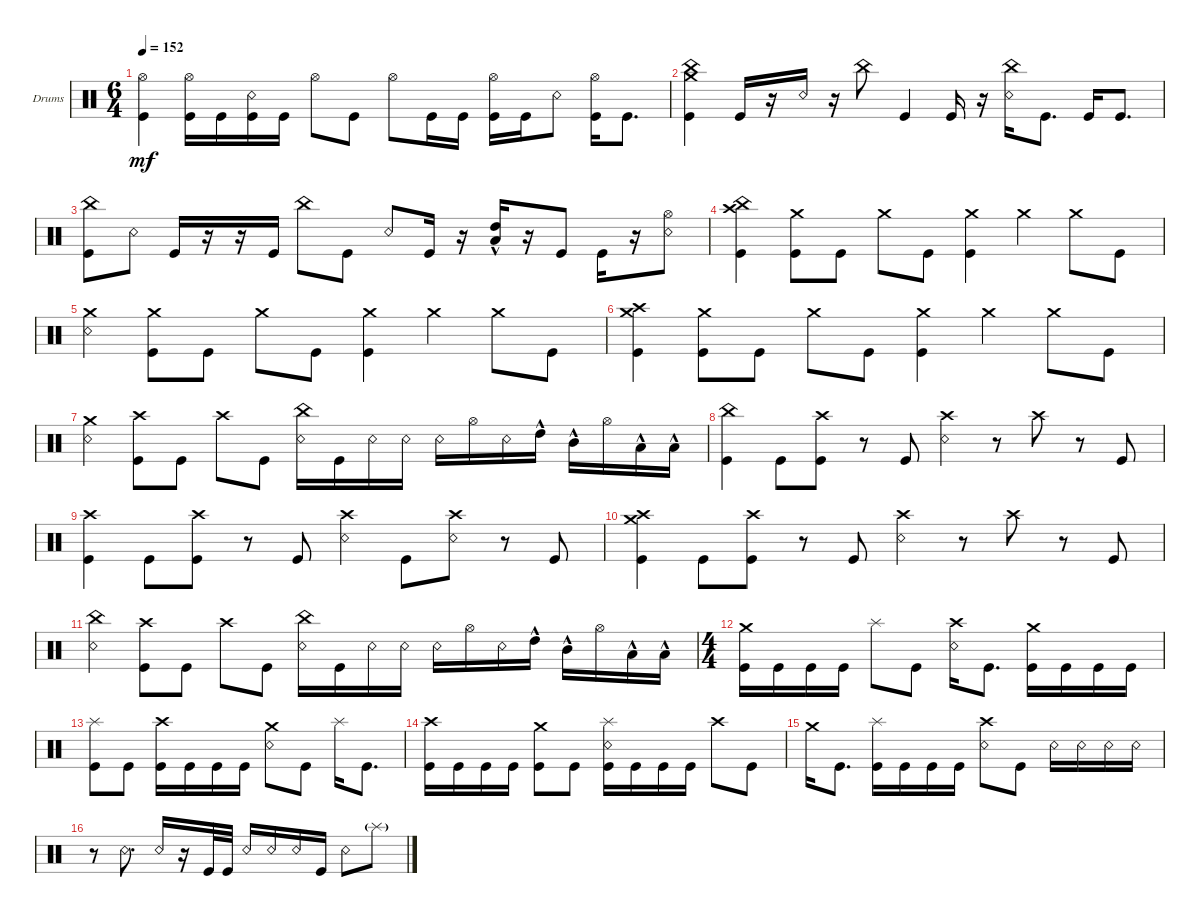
\defaultSystemsLayout 4
\bracketExtendMode groupsimilarinstruments
\firstSystemTrackNameOrientation horizontal
\otherSystemsTrackNameOrientation horizontal
\track ("Drumkit" "Drums") {instrument percussion}
\staff {score}
\articulation defaults
\ts (6 4)
\tempo 152
\clef neutral
\ks c
("Kick (hit)" "Hi-Hat (open)").4{dy mf} ("Hi-Hat (open)" "Kick (hit)").16 "Kick (hit)".16 ("Kick (hit)" "Snare (rim shot)").16 "Kick (hit)".16 "Hi-Hat (open)".8 "Kick (hit)".8 "Hi-Hat (open)".8 "Kick (hit)".16 "Kick (hit)".16 ("Kick (hit)" "Hi-Hat (open)").16 "Kick (hit)".16 "Snare (rim shot)".8 ("Hi-Hat (open)" "Kick (hit)").16 "Kick (hit)".8{d} |
("Crash medium (hit)" "Kick (hit)" "China (hit)").4 "Kick (hit)".16 r.16 "Snare (rim shot)".16 r.16 "China (hit)".8 "Kick (hit)".4 "Kick (hit)".16 r.16 ("Snare (rim shot)" "China (hit)").16 "Kick (hit)".8{d} "Kick (hit)".16 "Kick (hit)".8{d} |
("Kick (hit)" "China (hit)").8 "Snare (rim shot)".8 "Kick (hit)".16 r.16 r.16 "Kick (hit)".16 "China (hit)".8 "Kick (hit)".8 "Snare (rim shot)".8 "Kick (hit)".16 r.16 ("Low Tom (hit)"{hac} "High Tom (hit)"{hac}).16 r.16 "Kick (hit)".8 "Kick (hit)".16 r.16 ("Snare (rim shot)" "Hi-Hat (open)").8 |
("Kick (hit)" "China (hit)" "Crash high (hit)").4 ("Kick (hit)" "Crash medium (hit)").8 "Kick (hit)".8 "Crash medium (hit)".8 "Kick (hit)".8 ("Kick (hit)" "Crash medium (hit)").4 "Crash medium (hit)".4 "Crash medium (hit)".8 "Kick (hit)".8 |
("Crash medium (hit)" "Snare (rim shot)").4 ("Kick (hit)" "Crash medium (hit)").8 "Kick (hit)".8 "Crash medium (hit)".8 "Kick (hit)".8 ("Kick (hit)" "Crash medium (hit)").4 "Crash medium (hit)".4 "Crash medium (hit)".8 "Kick (hit)".8 |
("Kick (hit)" "Crash high (hit)" "Crash medium (hit)").4 ("Kick (hit)" "Crash medium (hit)").8 "Kick (hit)".8 "Crash medium (hit)".8 "Kick (hit)".8 ("Kick (hit)" "Crash medium (hit)").4 "Crash medium (hit)".4 "Crash medium (hit)".8 "Kick (hit)".8 |
("Crash medium (hit)" "Snare (rim shot)").4 ("Kick (hit)" "Crash high (hit)").8 "Kick (hit)".8 "Crash high (hit)".8 "Kick (hit)".8 ("China (hit)" "Snare (rim shot)").16 "Kick (hit)".16 "Snare (rim shot)".16 "Snare (rim shot)".16 "Snare (rim shot)".16 "Hi-Hat (open)".16 "Snare (rim shot)".16 "High Tom (hit)"{hac}.16 "Mid Tom (hit)"{hac}.16 "Hi-Hat (open)".16 "Low Tom (hit)"{hac}.16 "Low Tom (hit)"{hac}.16 |
("Kick (hit)" "China (hit)").4 "Kick (hit)".8 ("Kick (hit)" "Crash high (hit)").8 r.8 "Kick (hit)".8 ("Snare (rim shot)" "Crash high (hit)").4 r.8 "Crash high (hit)".8 r.8 "Kick (hit)".8 |
("Kick (hit)" "Crash high (hit)").4 "Kick (hit)".8 ("Kick (hit)" "Crash high (hit)").8 r.8 "Kick (hit)".8 ("Snare (rim shot)" "Crash high (hit)").4 "Kick (hit)".8 ("Snare (rim shot)" "Crash high (hit)").8 r.8 "Kick (hit)".8 |
("Kick (hit)" "Crash medium (hit)" "Crash high (hit)").4 "Kick (hit)".8 ("Kick (hit)" "Crash high (hit)").8 r.8 "Kick (hit)".8 ("Snare (rim shot)" "Crash high (hit)").4 r.8 "Crash high (hit)".8 r.8 "Kick (hit)".8 |
("Snare (rim shot)" "China (hit)").4 ("Kick (hit)" "Crash high (hit)").8 "Kick (hit)".8 "Crash high (hit)".8 "Kick (hit)".8 ("China (hit)" "Snare (rim shot)").16 "Kick (hit)".16 "Snare (rim shot)".16 "Snare (rim shot)".16 "Snare (rim shot)".16 "Hi-Hat (open)".16 "Snare (rim shot)".16 "High Tom (hit)"{hac}.16 "Mid Tom (hit)"{hac}.16 "Hi-Hat (open)".16 "Low Tom (hit)"{hac}.16 "Low Tom (hit)"{hac}.16 |
\ts (4 4)
("Kick (hit)" "Crash medium (hit)").16 "Kick (hit)".16 "Kick (hit)".16 "Kick (hit)".16 "Splash (hit)".8 "Kick (hit)".8 ("Snare (rim shot)" "Crash high (hit)").16 "Kick (hit)".8{d} ("Kick (hit)" "Crash medium (hit)").16 "Kick (hit)".16 "Kick (hit)".16 "Kick (hit)".16 |
("Kick (hit)" "Splash (hit)").8 "Kick (hit)".8 ("Kick (hit)" "Crash high (hit)").16 "Kick (hit)".16 "Kick (hit)".16 "Kick (hit)".16 ("Snare (rim shot)" "Crash medium (hit)").8 "Kick (hit)".8 "Splash (hit)".16 "Kick (hit)".8{d} |
("Kick (hit)" "Crash high (hit)").16 "Kick (hit)".16 "Kick (hit)".16 "Kick (hit)".16 ("Kick (hit)" "Crash medium (hit)").8 "Kick (hit)".8 ("Kick (hit)" "Snare (rim shot)" "Splash (hit)").16 "Kick (hit)".16 "Kick (hit)".16 "Kick (hit)".16 "Crash high (hit)".8 "Kick (hit)".8 |
"Crash medium (hit)".16 "Kick (hit)".8{d} ("Kick (hit)" "Splash (hit)").16 "Kick (hit)".16 "Kick (hit)".16 "Kick (hit)".16 ("Snare (rim shot)" "Crash high (hit)").8 "Kick (hit)".8 "Snare (rim shot)".16 "Snare (rim shot)".16 "Snare (rim shot)".16 "Snare (rim shot)".16 |
r.8 "Snare (rim shot)".8{d} "Snare (rim shot)".16 r.16 "Kick (hit)".32 "Kick (hit)".32 "Snare (rim shot)".16 "Snare (rim shot)".16 "Snare (rim shot)".16 "Kick (hit)".16 "Snare (rim shot)".8 "Splash (hit)"{g}.8
